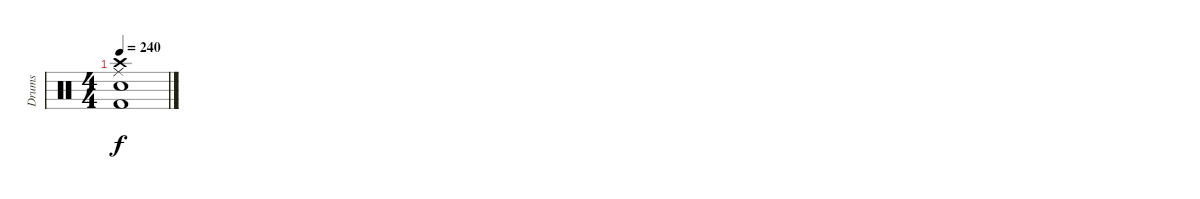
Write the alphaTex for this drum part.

\track ("Drums" "Drums") {instrument percussion}
\staff {score}
\articulation defaults
\ts (4 4)
\tempo 240
\clef neutral
\ks c
("Crash high (hit)" "Ride (middle)" "Snare (hit) 2" "Kick (hit) 2").1{dy f}
